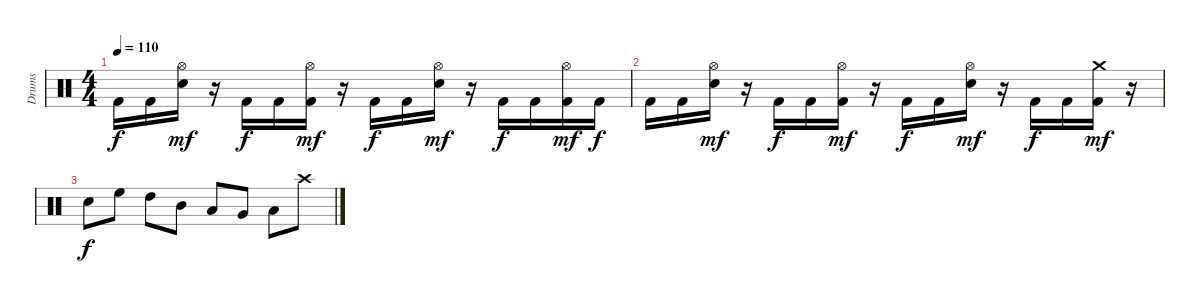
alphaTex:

\track ("Drums" "Drums") {instrument percussion}
\staff {score}
\articulation defaults
\ts (4 4)
\tempo 110
\clef neutral
\ks c "Kick (hit) 2".16{dy f} "Kick (hit) 2".16
("Hi-Hat (open)" "Electric Snare (hit)").16{dy mf} r.16 "Kick (hit) 2".16{dy f} "Kick (hit) 2".16 ("Hi-Hat (open)" "Kick (hit) 2").16{dy mf} r.16 "Kick (hit) 2".16{dy f} "Kick (hit) 2".16 ("Hi-Hat (open)" "Electric Snare (hit)").16{dy mf} r.16 "Kick (hit) 2".16{dy f} "Kick (hit) 2".16 ("Hi-Hat (open)" "Kick (hit) 2").16{dy mf} "Kick (hit) 2".16{dy f} |
"Kick (hit) 2".16 "Kick (hit) 2".16 ("Hi-Hat (open)" "Electric Snare (hit)").16{dy mf} r.16 "Kick (hit) 2".16{dy f} "Kick (hit) 2".16 ("Hi-Hat (open)" "Kick (hit) 2").16{dy mf} r.16 "Kick (hit) 2".16{dy f} "Kick (hit) 2".16 ("Hi-Hat (open)" "Electric Snare (hit)").16{dy mf} r.16 "Kick (hit) 2".16{dy f} "Kick (hit) 2".16 ("Crash medium (hit)" "Kick (hit) 2").16{dy mf} r.16 |
"Electric Snare (hit)".8{dy f} "High Floor Tom (hit)".8 "High Tom (hit)".8 "Mid Tom (hit)".8 "Low Tom (hit)".8 "Very Low Tom (hit)".8 "Low Floor Tom (hit)".8 "Crash high (hit)".8
